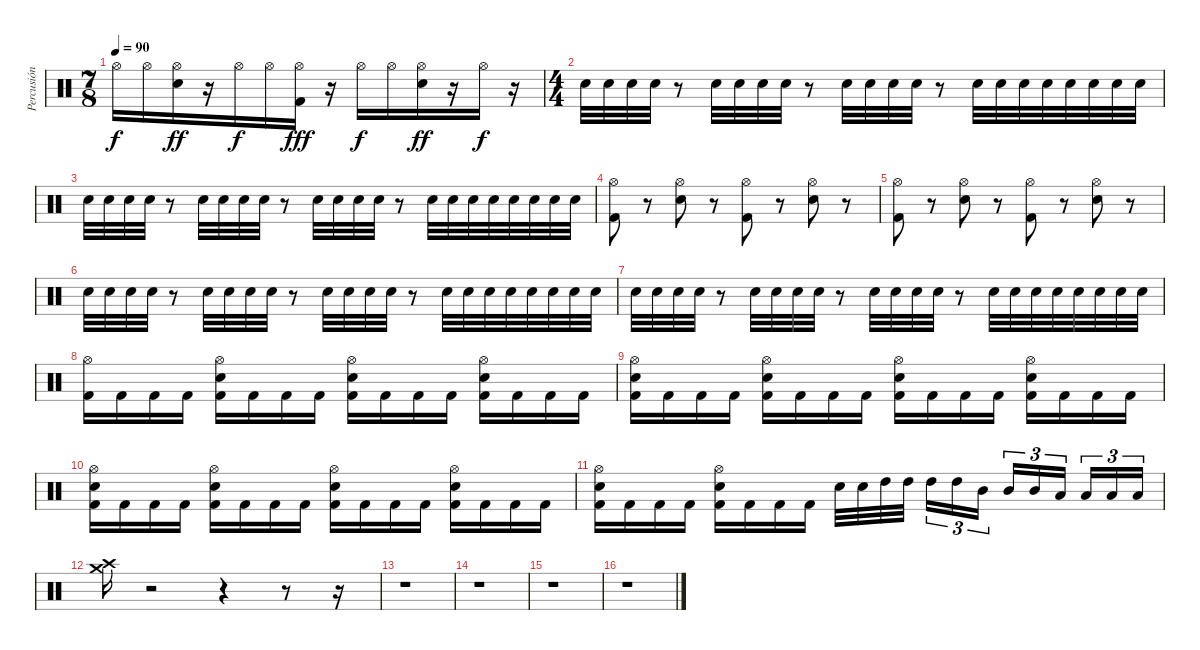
\track ("Percusión" "Percusión") {instrument percussion}
\staff {score}
\articulation defaults
\ts (7 8)
\tempo 90
\clef neutral
\ks c "Hi-Hat (open)".16{dy f} "Hi-Hat (open)".16
("Hi-Hat (open)" "Electric Snare (hit)").16{dy ff} r.16 "Hi-Hat (open)".16{dy f} "Hi-Hat (open)".16 ("Hi-Hat (open)" "Kick (hit) 2").16{dy fff} r.16 "Hi-Hat (open)".16{dy f} "Hi-Hat (open)".16 ("Hi-Hat (open)" "Electric Snare (hit)").16{dy ff} r.16 "Hi-Hat (open)".16{dy f} r.16 |
\ts (4 4)
"Electric Snare (hit)".32 "Electric Snare (hit)".32 "Electric Snare (hit)".32 "Electric Snare (hit)".32 r.8 "Electric Snare (hit)".32 "Electric Snare (hit)".32 "Electric Snare (hit)".32 "Electric Snare (hit)".32 r.8 "Electric Snare (hit)".32 "Electric Snare (hit)".32 "Electric Snare (hit)".32 "Electric Snare (hit)".32 r.8 "Electric Snare (hit)".32 "Electric Snare (hit)".32 "Electric Snare (hit)".32 "Electric Snare (hit)".32 "Electric Snare (hit)".32 "Electric Snare (hit)".32 "Electric Snare (hit)".32 "Electric Snare (hit)".32 |
"Electric Snare (hit)".32 "Electric Snare (hit)".32 "Electric Snare (hit)".32 "Electric Snare (hit)".32 r.8 "Electric Snare (hit)".32 "Electric Snare (hit)".32 "Electric Snare (hit)".32 "Electric Snare (hit)".32 r.8 "Electric Snare (hit)".32 "Electric Snare (hit)".32 "Electric Snare (hit)".32 "Electric Snare (hit)".32 r.8 "Electric Snare (hit)".32 "Electric Snare (hit)".32 "Electric Snare (hit)".32 "Electric Snare (hit)".32 "Electric Snare (hit)".32 "Electric Snare (hit)".32 "Electric Snare (hit)".32 "Electric Snare (hit)".32 |
("Hi-Hat (open)" "Kick (hit) 2").8 r.8 ("Hi-Hat (open)" "Electric Snare (hit)").8 r.8 ("Hi-Hat (open)" "Kick (hit) 2").8 r.8 ("Hi-Hat (open)" "Electric Snare (hit)").8 r.8 |
("Hi-Hat (open)" "Kick (hit) 2").8 r.8 ("Hi-Hat (open)" "Electric Snare (hit)").8 r.8 ("Hi-Hat (open)" "Kick (hit) 2").8 r.8 ("Hi-Hat (open)" "Electric Snare (hit)").8 r.8 |
"Electric Snare (hit)".32 "Electric Snare (hit)".32 "Electric Snare (hit)".32 "Electric Snare (hit)".32 r.8 "Electric Snare (hit)".32 "Electric Snare (hit)".32 "Electric Snare (hit)".32 "Electric Snare (hit)".32 r.8 "Electric Snare (hit)".32 "Electric Snare (hit)".32 "Electric Snare (hit)".32 "Electric Snare (hit)".32 r.8 "Electric Snare (hit)".32 "Electric Snare (hit)".32 "Electric Snare (hit)".32 "Electric Snare (hit)".32 "Electric Snare (hit)".32 "Electric Snare (hit)".32 "Electric Snare (hit)".32 "Electric Snare (hit)".32 |
"Electric Snare (hit)".32 "Electric Snare (hit)".32 "Electric Snare (hit)".32 "Electric Snare (hit)".32 r.8 "Electric Snare (hit)".32 "Electric Snare (hit)".32 "Electric Snare (hit)".32 "Electric Snare (hit)".32 r.8 "Electric Snare (hit)".32 "Electric Snare (hit)".32 "Electric Snare (hit)".32 "Electric Snare (hit)".32 r.8 "Electric Snare (hit)".32 "Electric Snare (hit)".32 "Electric Snare (hit)".32 "Electric Snare (hit)".32 "Electric Snare (hit)".32 "Electric Snare (hit)".32 "Electric Snare (hit)".32 "Electric Snare (hit)".32 |
("Hi-Hat (open)" "Kick (hit) 2").16 "Kick (hit) 2".16 "Kick (hit) 2".16 "Kick (hit) 2".16 ("Hi-Hat (open)" "Electric Snare (hit)" "Kick (hit) 2").16 "Kick (hit) 2".16 "Kick (hit) 2".16 "Kick (hit) 2".16 ("Hi-Hat (open)" "Electric Snare (hit)" "Kick (hit) 2").16 "Kick (hit) 2".16 "Kick (hit) 2".16 "Kick (hit) 2".16 ("Hi-Hat (open)" "Electric Snare (hit)" "Kick (hit) 2").16 "Kick (hit) 2".16 "Kick (hit) 2".16 "Kick (hit) 2".16 |
("Hi-Hat (open)" "Electric Snare (hit)" "Kick (hit) 2").16 "Kick (hit) 2".16 "Kick (hit) 2".16 "Kick (hit) 2".16 ("Hi-Hat (open)" "Electric Snare (hit)" "Kick (hit) 2").16 "Kick (hit) 2".16 "Kick (hit) 2".16 "Kick (hit) 2".16 ("Hi-Hat (open)" "Electric Snare (hit)" "Kick (hit) 2").16 "Kick (hit) 2".16 "Kick (hit) 2".16 "Kick (hit) 2".16 ("Hi-Hat (open)" "Electric Snare (hit)" "Kick (hit) 2").16 "Kick (hit) 2".16 "Kick (hit) 2".16 "Kick (hit) 2".16 |
("Hi-Hat (open)" "Electric Snare (hit)" "Kick (hit) 2").16 "Kick (hit) 2".16 "Kick (hit) 2".16 "Kick (hit) 2".16 ("Hi-Hat (open)" "Electric Snare (hit)" "Kick (hit) 2").16 "Kick (hit) 2".16 "Kick (hit) 2".16 "Kick (hit) 2".16 ("Hi-Hat (open)" "Electric Snare (hit)" "Kick (hit) 2").16 "Kick (hit) 2".16 "Kick (hit) 2".16 "Kick (hit) 2".16 ("Hi-Hat (open)" "Electric Snare (hit)" "Kick (hit) 2").16 "Kick (hit) 2".16 "Kick (hit) 2".16 "Kick (hit) 2".16 |
("Hi-Hat (open)" "Electric Snare (hit)" "Kick (hit) 2").16 "Kick (hit) 2".16 "Kick (hit) 2".16 "Kick (hit) 2".16 ("Hi-Hat (open)" "Electric Snare (hit)" "Kick (hit) 2").16 "Kick (hit) 2".16 "Kick (hit) 2".16 "Kick (hit) 2".16 "Electric Snare (hit)".32 "Electric Snare (hit)".32 "High Tom (hit)".32 "High Tom (hit)".32 "High Tom (hit)".16{tu (3 2)} "High Tom (hit)".16{tu (3 2)} "Mid Tom (hit)".16{tu (3 2)} "Mid Tom (hit)".16{tu (3 2)} "Mid Tom (hit)".16{tu (3 2)} "Low Tom (hit)".16{tu (3 2)} "Low Tom (hit)".16{tu (3 2)} "Low Tom (hit)".16{tu (3 2)} "Low Tom (hit)".16{tu (3 2)} |
("Crash high (hit)" "Crash medium (hit)").16 r.2 r.4 r.8 r.16 |
r.1 |
r.1 |
r.1 |
r.1
